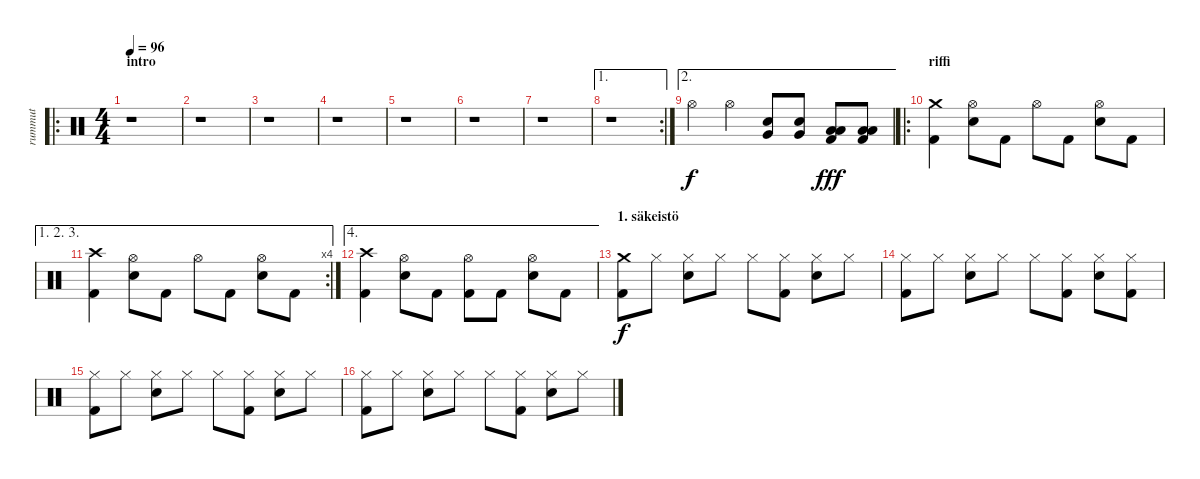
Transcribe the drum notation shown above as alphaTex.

\track ("rummut" "rummut") {instrument percussion}
\staff {score}
\articulation defaults
\ro
\ts (4 4)
\section ("" "intro")
\tempo 96
\clef neutral
\ks c
r.1{dy f} |
r.1 |
r.1 |
r.1 |
r.1 |
r.1 |
r.1 |
\ae 1
\rc 2
r.1 |
\ae 2 "Hi-Hat (open)".4 "Hi-Hat (open)".4
("Very Low Tom (hit)" "Snare (hit) 2").8 ("Very Low Tom (hit)" "Snare (hit) 2").8 ("Kick (hit) 2" "Low Floor Tom (hit)" "Low Floor Tom (hit)").8{dy fff} ("Kick (hit) 2" "Low Floor Tom (hit)" "Low Floor Tom (hit)").8 |
\ro
\section ("" "riffi")
("Kick (hit) 2" "Crash medium (hit)").4 ("Hi-Hat (open)" "Snare (hit) 2").8 "Kick (hit) 2".8 "Hi-Hat (open)".8 "Kick (hit) 2".8 ("Hi-Hat (open)" "Snare (hit) 2").8 "Kick (hit) 2".8 |
\ae (1 2 3)
\rc 4
("Kick (hit) 2" "Crash high (hit)").4 ("Hi-Hat (open)" "Snare (hit) 2").8 "Kick (hit) 2".8 "Hi-Hat (open)".8 "Kick (hit) 2".8 ("Hi-Hat (open)" "Snare (hit) 2").8 "Kick (hit) 2".8 |
\ae 4
("Kick (hit) 2" "Crash high (hit)").4 ("Hi-Hat (open)" "Snare (hit) 2").8 "Kick (hit) 2".8 ("Kick (hit) 2" "Hi-Hat (open)").8 "Kick (hit) 2".8 ("Hi-Hat (open)" "Snare (hit) 2").8 "Kick (hit) 2".8 |
\section ("" "1. säkeistö")
("Kick (hit) 2" "Crash medium (hit)").8{dy f} "Hi-Hat (closed)".8 ("Hi-Hat (closed)" "Snare (hit) 2").8 "Hi-Hat (closed)".8 "Hi-Hat (closed)".8 ("Kick (hit) 2" "Hi-Hat (closed)").8 ("Hi-Hat (closed)" "Snare (hit) 2").8 "Hi-Hat (closed)".8 |
("Kick (hit) 2" "Hi-Hat (closed)").8 "Hi-Hat (closed)".8 ("Hi-Hat (closed)" "Snare (hit) 2").8 "Hi-Hat (closed)".8 "Hi-Hat (closed)".8 ("Kick (hit) 2" "Hi-Hat (closed)").8 ("Hi-Hat (closed)" "Snare (hit) 2").8 ("Kick (hit) 2" "Hi-Hat (closed)").8 |
("Kick (hit) 2" "Hi-Hat (closed)").8 "Hi-Hat (closed)".8 ("Hi-Hat (closed)" "Snare (hit) 2").8 "Hi-Hat (closed)".8 "Hi-Hat (closed)".8 ("Kick (hit) 2" "Hi-Hat (closed)").8 ("Hi-Hat (closed)" "Snare (hit) 2").8 "Hi-Hat (closed)".8 |
("Kick (hit) 2" "Hi-Hat (closed)").8 "Hi-Hat (closed)".8 ("Hi-Hat (closed)" "Snare (hit) 2").8 "Hi-Hat (closed)".8 "Hi-Hat (closed)".8 ("Kick (hit) 2" "Hi-Hat (closed)").8 ("Hi-Hat (closed)" "Snare (hit) 2").8 "Hi-Hat (closed)".8
